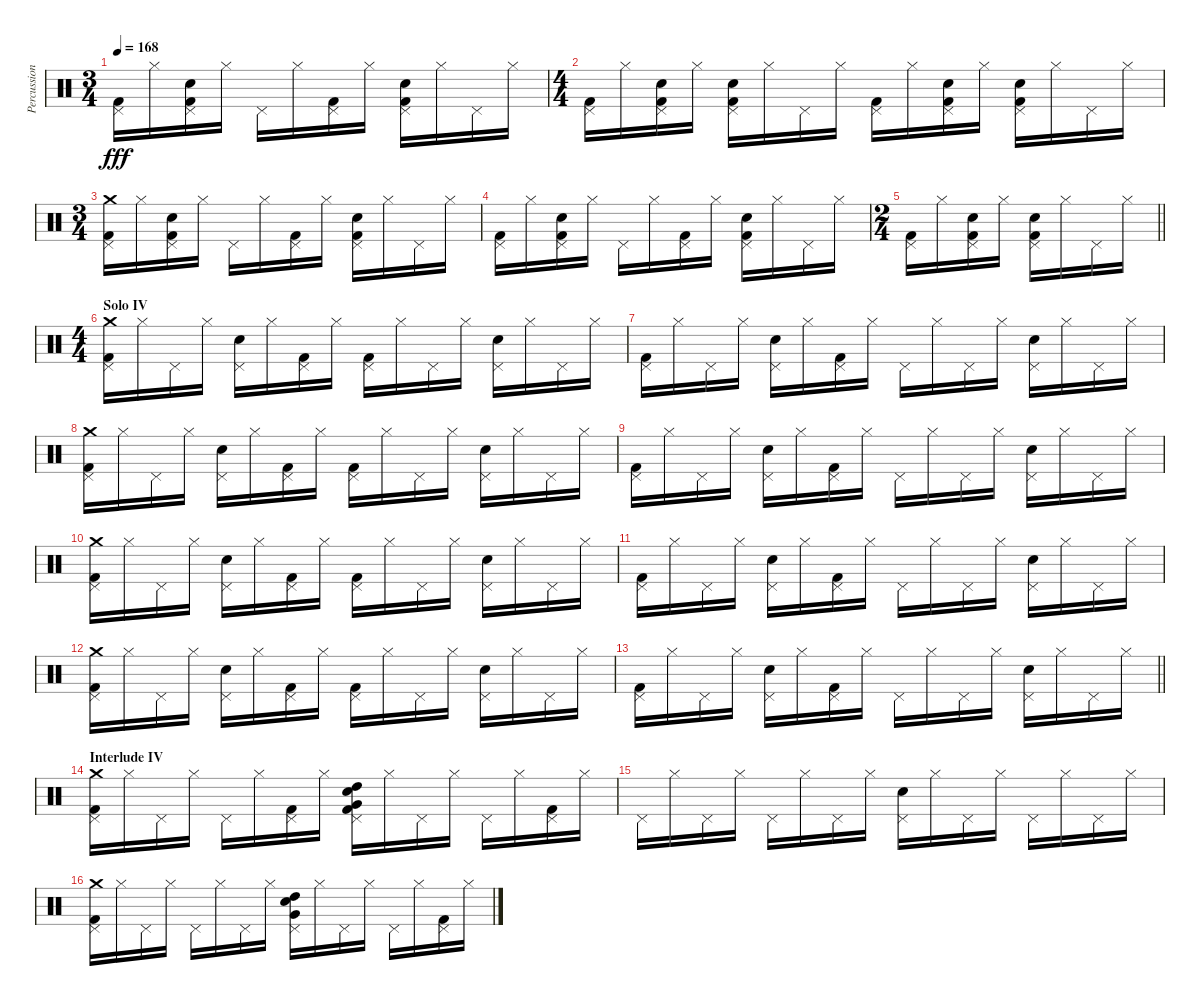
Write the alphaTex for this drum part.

\track ("Percussion" "Percussion") {instrument percussion}
\staff {score}
\articulation defaults
\ts (3 4)
\tempo 168
\clef neutral
\ks c
("Kick (hit) 2" "Pedal Hi-Hat (hit)").16{dy fff} "Hi-Hat (closed)".16 ("Kick (hit) 2" "Pedal Hi-Hat (hit)" "Snare (hit) 2").16 "Hi-Hat (closed)".16 "Pedal Hi-Hat (hit)".16 "Hi-Hat (closed)".16 ("Kick (hit) 2" "Pedal Hi-Hat (hit)").16 "Hi-Hat (closed)".16 ("Kick (hit) 2" "Pedal Hi-Hat (hit)" "Snare (hit) 2").16 "Hi-Hat (closed)".16 "Pedal Hi-Hat (hit)".16 "Hi-Hat (closed)".16 |
\ts (4 4)
("Kick (hit) 2" "Pedal Hi-Hat (hit)").16 "Hi-Hat (closed)".16 ("Kick (hit) 2" "Pedal Hi-Hat (hit)" "Snare (hit) 2").16 "Hi-Hat (closed)".16 ("Kick (hit) 2" "Pedal Hi-Hat (hit)" "Snare (hit) 2").16 "Hi-Hat (closed)".16 "Pedal Hi-Hat (hit)".16 "Hi-Hat (closed)".16 ("Kick (hit) 2" "Pedal Hi-Hat (hit)").16 "Hi-Hat (closed)".16 ("Kick (hit) 2" "Pedal Hi-Hat (hit)" "Snare (hit) 2").16 "Hi-Hat (closed)".16 ("Kick (hit) 2" "Pedal Hi-Hat (hit)" "Snare (hit) 2").16 "Hi-Hat (closed)".16 "Pedal Hi-Hat (hit)".16 "Hi-Hat (closed)".16 |
\ts (3 4)
("Kick (hit) 2" "Crash medium (hit)" "Pedal Hi-Hat (hit)").16 "Hi-Hat (closed)".16 ("Kick (hit) 2" "Pedal Hi-Hat (hit)" "Snare (hit) 2").16 "Hi-Hat (closed)".16 "Pedal Hi-Hat (hit)".16 "Hi-Hat (closed)".16 ("Kick (hit) 2" "Pedal Hi-Hat (hit)").16 "Hi-Hat (closed)".16 ("Kick (hit) 2" "Pedal Hi-Hat (hit)" "Snare (hit) 2").16 "Hi-Hat (closed)".16 "Pedal Hi-Hat (hit)".16 "Hi-Hat (closed)".16 |
("Kick (hit) 2" "Pedal Hi-Hat (hit)").16 "Hi-Hat (closed)".16 ("Kick (hit) 2" "Pedal Hi-Hat (hit)" "Snare (hit) 2").16 "Hi-Hat (closed)".16 "Pedal Hi-Hat (hit)".16 "Hi-Hat (closed)".16 ("Kick (hit) 2" "Pedal Hi-Hat (hit)").16 "Hi-Hat (closed)".16 ("Kick (hit) 2" "Pedal Hi-Hat (hit)" "Snare (hit) 2").16 "Hi-Hat (closed)".16 "Pedal Hi-Hat (hit)".16 "Hi-Hat (closed)".16 |
\ts (2 4)
\barLineRight lightlight
("Kick (hit) 2" "Pedal Hi-Hat (hit)").16 "Hi-Hat (closed)".16 ("Kick (hit) 2" "Pedal Hi-Hat (hit)" "Snare (hit) 2").16 "Hi-Hat (closed)".16 ("Kick (hit) 2" "Pedal Hi-Hat (hit)" "Snare (hit) 2").16 "Hi-Hat (closed)".16 "Pedal Hi-Hat (hit)".16 "Hi-Hat (closed)".16 |
\ts (4 4)
\section ("" "Solo IV")
("Kick (hit) 2" "Crash medium (hit)" "Pedal Hi-Hat (hit)").16 "Hi-Hat (closed)".16 "Pedal Hi-Hat (hit)".16 "Hi-Hat (closed)".16 ("Pedal Hi-Hat (hit)" "Snare (hit) 2").16 "Hi-Hat (closed)".16 ("Kick (hit) 2" "Pedal Hi-Hat (hit)").16 "Hi-Hat (closed)".16 ("Kick (hit) 2" "Pedal Hi-Hat (hit)").16 "Hi-Hat (closed)".16 "Pedal Hi-Hat (hit)".16 "Hi-Hat (closed)".16 ("Pedal Hi-Hat (hit)" "Snare (hit) 2").16 "Hi-Hat (closed)".16 "Pedal Hi-Hat (hit)".16 "Hi-Hat (closed)".16 |
("Kick (hit) 2" "Pedal Hi-Hat (hit)").16 "Hi-Hat (closed)".16 "Pedal Hi-Hat (hit)".16 "Hi-Hat (closed)".16 ("Pedal Hi-Hat (hit)" "Snare (hit) 2").16 "Hi-Hat (closed)".16 ("Kick (hit) 2" "Pedal Hi-Hat (hit)").16 "Hi-Hat (closed)".16 "Pedal Hi-Hat (hit)".16 "Hi-Hat (closed)".16 "Pedal Hi-Hat (hit)".16 "Hi-Hat (closed)".16 ("Pedal Hi-Hat (hit)" "Snare (hit) 2").16 "Hi-Hat (closed)".16 "Pedal Hi-Hat (hit)".16 "Hi-Hat (closed)".16 |
("Kick (hit) 2" "Crash medium (hit)" "Pedal Hi-Hat (hit)").16 "Hi-Hat (closed)".16 "Pedal Hi-Hat (hit)".16 "Hi-Hat (closed)".16 ("Pedal Hi-Hat (hit)" "Snare (hit) 2").16 "Hi-Hat (closed)".16 ("Kick (hit) 2" "Pedal Hi-Hat (hit)").16 "Hi-Hat (closed)".16 ("Kick (hit) 2" "Pedal Hi-Hat (hit)").16 "Hi-Hat (closed)".16 "Pedal Hi-Hat (hit)".16 "Hi-Hat (closed)".16 ("Pedal Hi-Hat (hit)" "Snare (hit) 2").16 "Hi-Hat (closed)".16 "Pedal Hi-Hat (hit)".16 "Hi-Hat (closed)".16 |
("Kick (hit) 2" "Pedal Hi-Hat (hit)").16 "Hi-Hat (closed)".16 "Pedal Hi-Hat (hit)".16 "Hi-Hat (closed)".16 ("Pedal Hi-Hat (hit)" "Snare (hit) 2").16 "Hi-Hat (closed)".16 ("Kick (hit) 2" "Pedal Hi-Hat (hit)").16 "Hi-Hat (closed)".16 "Pedal Hi-Hat (hit)".16 "Hi-Hat (closed)".16 "Pedal Hi-Hat (hit)".16 "Hi-Hat (closed)".16 ("Pedal Hi-Hat (hit)" "Snare (hit) 2").16 "Hi-Hat (closed)".16 "Pedal Hi-Hat (hit)".16 "Hi-Hat (closed)".16 |
("Kick (hit) 2" "Crash medium (hit)" "Pedal Hi-Hat (hit)").16 "Hi-Hat (closed)".16 "Pedal Hi-Hat (hit)".16 "Hi-Hat (closed)".16 ("Pedal Hi-Hat (hit)" "Snare (hit) 2").16 "Hi-Hat (closed)".16 ("Kick (hit) 2" "Pedal Hi-Hat (hit)").16 "Hi-Hat (closed)".16 ("Kick (hit) 2" "Pedal Hi-Hat (hit)").16 "Hi-Hat (closed)".16 "Pedal Hi-Hat (hit)".16 "Hi-Hat (closed)".16 ("Pedal Hi-Hat (hit)" "Snare (hit) 2").16 "Hi-Hat (closed)".16 "Pedal Hi-Hat (hit)".16 "Hi-Hat (closed)".16 |
("Kick (hit) 2" "Pedal Hi-Hat (hit)").16 "Hi-Hat (closed)".16 "Pedal Hi-Hat (hit)".16 "Hi-Hat (closed)".16 ("Pedal Hi-Hat (hit)" "Snare (hit) 2").16 "Hi-Hat (closed)".16 ("Kick (hit) 2" "Pedal Hi-Hat (hit)").16 "Hi-Hat (closed)".16 "Pedal Hi-Hat (hit)".16 "Hi-Hat (closed)".16 "Pedal Hi-Hat (hit)".16 "Hi-Hat (closed)".16 ("Pedal Hi-Hat (hit)" "Snare (hit) 2").16 "Hi-Hat (closed)".16 "Pedal Hi-Hat (hit)".16 "Hi-Hat (closed)".16 |
("Kick (hit) 2" "Crash medium (hit)" "Pedal Hi-Hat (hit)").16 "Hi-Hat (closed)".16 "Pedal Hi-Hat (hit)".16 "Hi-Hat (closed)".16 ("Pedal Hi-Hat (hit)" "Snare (hit) 2").16 "Hi-Hat (closed)".16 ("Kick (hit) 2" "Pedal Hi-Hat (hit)").16 "Hi-Hat (closed)".16 ("Kick (hit) 2" "Pedal Hi-Hat (hit)").16 "Hi-Hat (closed)".16 "Pedal Hi-Hat (hit)".16 "Hi-Hat (closed)".16 ("Pedal Hi-Hat (hit)" "Snare (hit) 2").16 "Hi-Hat (closed)".16 "Pedal Hi-Hat (hit)".16 "Hi-Hat (closed)".16 |
\barLineRight lightlight
("Kick (hit) 2" "Pedal Hi-Hat (hit)").16 "Hi-Hat (closed)".16 "Pedal Hi-Hat (hit)".16 "Hi-Hat (closed)".16 ("Pedal Hi-Hat (hit)" "Snare (hit) 2").16 "Hi-Hat (closed)".16 ("Kick (hit) 2" "Pedal Hi-Hat (hit)").16 "Hi-Hat (closed)".16 "Pedal Hi-Hat (hit)".16 "Hi-Hat (closed)".16 "Pedal Hi-Hat (hit)".16 "Hi-Hat (closed)".16 ("Pedal Hi-Hat (hit)" "Snare (hit) 2").16 "Hi-Hat (closed)".16 "Pedal Hi-Hat (hit)".16 "Hi-Hat (closed)".16 |
\section ("" "Interlude IV")
("Kick (hit) 2" "Crash medium (hit)" "Pedal Hi-Hat (hit)").16 "Hi-Hat (closed)".16 "Pedal Hi-Hat (hit)".16 "Hi-Hat (closed)".16 "Pedal Hi-Hat (hit)".16 "Hi-Hat (closed)".16 ("Kick (hit) 2" "Pedal Hi-Hat (hit)").16 "Hi-Hat (closed)".16 ("Kick (hit) 2" "Very Low Tom (hit)" "High Tom (hit)" "Pedal Hi-Hat (hit)" "Snare (hit) 2").16 "Hi-Hat (closed)".16 "Pedal Hi-Hat (hit)".16 "Hi-Hat (closed)".16 "Pedal Hi-Hat (hit)".16 "Hi-Hat (closed)".16 ("Kick (hit) 2" "Pedal Hi-Hat (hit)").16 "Hi-Hat (closed)".16 |
"Pedal Hi-Hat (hit)".16 "Hi-Hat (closed)".16 "Pedal Hi-Hat (hit)".16 "Hi-Hat (closed)".16 "Pedal Hi-Hat (hit)".16 "Hi-Hat (closed)".16 "Pedal Hi-Hat (hit)".16 "Hi-Hat (closed)".16 ("Pedal Hi-Hat (hit)" "Snare (hit) 2").16 "Hi-Hat (closed)".16 "Pedal Hi-Hat (hit)".16 "Hi-Hat (closed)".16 "Pedal Hi-Hat (hit)".16 "Hi-Hat (closed)".16 "Pedal Hi-Hat (hit)".16 "Hi-Hat (closed)".16 |
("Kick (hit) 2" "Crash medium (hit)" "Pedal Hi-Hat (hit)").16 "Hi-Hat (closed)".16 "Pedal Hi-Hat (hit)".16 "Hi-Hat (closed)".16 "Pedal Hi-Hat (hit)".16 "Hi-Hat (closed)".16 "Pedal Hi-Hat (hit)".16 "Hi-Hat (closed)".16 ("Very Low Tom (hit)" "High Tom (hit)" "Pedal Hi-Hat (hit)" "Snare (hit) 2").16 "Hi-Hat (closed)".16 "Pedal Hi-Hat (hit)".16 "Hi-Hat (closed)".16 "Pedal Hi-Hat (hit)".16 "Hi-Hat (closed)".16 ("Kick (hit) 2" "Pedal Hi-Hat (hit)").16 "Hi-Hat (closed)".16
